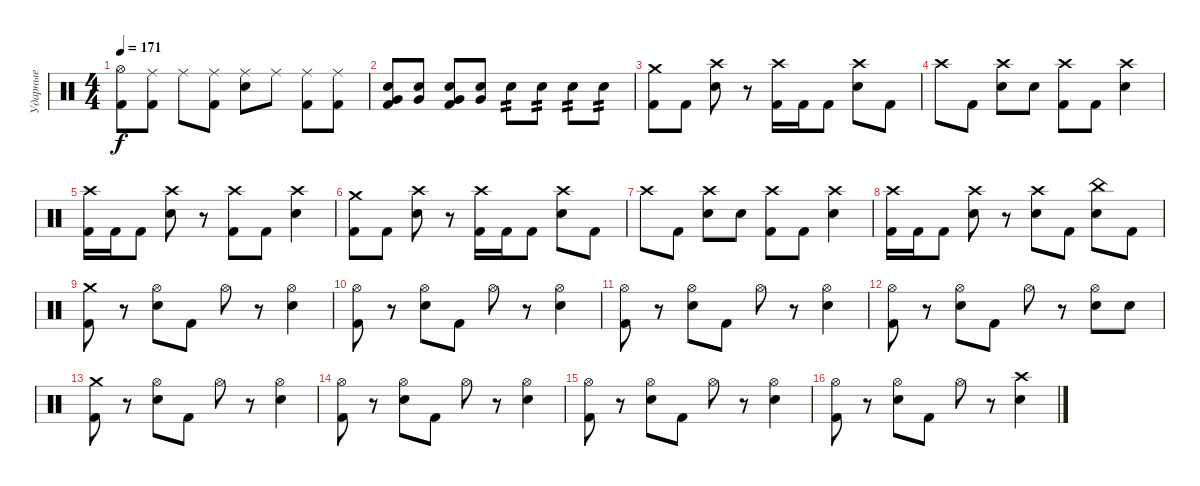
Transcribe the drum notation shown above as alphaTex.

\track ("Ударные" "Ударные") {instrument percussion}
\staff {score}
\articulation defaults
\ts (4 4)
\tempo 171
\clef neutral
\ks c
("Hi-Hat (open)" "Kick (hit) 2").8{dy f} ("Ride (middle)" "Kick (hit) 2").8 "Ride (middle)".8 ("Ride (middle)" "Kick (hit) 2").8 ("Ride (middle)" "Electric Snare (hit)").8 "Ride (middle)".8 ("Ride (middle)" "Kick (hit) 2").8 ("Ride (middle)" "Kick (hit) 2").8 |
("Electric Snare (hit)" "Very Low Tom (hit)" "Kick (hit) 2").8 ("Electric Snare (hit)" "Very Low Tom (hit)").8 ("Electric Snare (hit)" "Very Low Tom (hit)" "Kick (hit) 2").8 ("Electric Snare (hit)" "Very Low Tom (hit)").8 "Electric Snare (hit)".8{tp 2} "Electric Snare (hit)".8{tp 2} "Electric Snare (hit)".8{tp 2} "Electric Snare (hit)".8{tp 2} |
("Crash medium (hit)" "Kick (hit) 2").8 "Kick (hit) 2".8 ("Crash high (hit)" "Electric Snare (hit)").8 r.8 ("Crash high (hit)" "Kick (hit) 2").16 "Kick (hit) 2".16 "Kick (hit) 2".8 ("Crash high (hit)" "Electric Snare (hit)").8 "Kick (hit) 2".8 |
"Crash high (hit)".8 "Kick (hit) 2".8 ("Crash high (hit)" "Electric Snare (hit)").8 "Electric Snare (hit)".8 ("Crash high (hit)" "Kick (hit) 2").8 "Kick (hit) 2".8 ("Crash high (hit)" "Electric Snare (hit)").4 |
("Crash high (hit)" "Kick (hit) 2").16 "Kick (hit) 2".16 "Kick (hit) 2".8 ("Crash high (hit)" "Electric Snare (hit)").8 r.8 ("Crash high (hit)" "Kick (hit) 2").8 "Kick (hit) 2".8 ("Crash high (hit)" "Electric Snare (hit)").4 |
("Crash medium (hit)" "Kick (hit) 2").8 "Kick (hit) 2".8 ("Crash high (hit)" "Electric Snare (hit)").8 r.8 ("Crash high (hit)" "Kick (hit) 2").16 "Kick (hit) 2".16 "Kick (hit) 2".8 ("Crash high (hit)" "Electric Snare (hit)").8 "Kick (hit) 2".8 |
"Crash high (hit)".8 "Kick (hit) 2".8 ("Crash high (hit)" "Electric Snare (hit)").8 "Electric Snare (hit)".8 ("Crash high (hit)" "Kick (hit) 2").8 "Kick (hit) 2".8 ("Crash high (hit)" "Electric Snare (hit)").4 |
("Crash high (hit)" "Kick (hit) 2").16 "Kick (hit) 2".16 "Kick (hit) 2".8 ("Crash high (hit)" "Electric Snare (hit)").8 r.8 ("Crash high (hit)" "Electric Snare (hit)").8 "Kick (hit) 2".8 ("China (hit)" "Electric Snare (hit)").8 "Kick (hit) 2".8 |
("Crash medium (hit)" "Kick (hit) 2").8 r.8 ("Hi-Hat (open)" "Electric Snare (hit)").8 "Kick (hit) 2".8 "Hi-Hat (open)".8 r.8 ("Hi-Hat (open)" "Electric Snare (hit)").4 |
("Hi-Hat (open)" "Kick (hit) 2").8 r.8 ("Hi-Hat (open)" "Electric Snare (hit)").8 "Kick (hit) 2".8 "Hi-Hat (open)".8 r.8 ("Hi-Hat (open)" "Electric Snare (hit)").4 |
("Hi-Hat (open)" "Kick (hit) 2").8 r.8 ("Hi-Hat (open)" "Electric Snare (hit)").8 "Kick (hit) 2".8 "Hi-Hat (open)".8 r.8 ("Hi-Hat (open)" "Electric Snare (hit)").4 |
("Hi-Hat (open)" "Kick (hit) 2").8 r.8 ("Hi-Hat (open)" "Electric Snare (hit)").8 "Kick (hit) 2".8 "Hi-Hat (open)".8 r.8 ("Hi-Hat (open)" "Electric Snare (hit)").8 "Electric Snare (hit)".8 |
("Crash medium (hit)" "Kick (hit) 2").8 r.8 ("Hi-Hat (open)" "Electric Snare (hit)").8 "Kick (hit) 2".8 "Hi-Hat (open)".8 r.8 ("Hi-Hat (open)" "Electric Snare (hit)").4 |
("Hi-Hat (open)" "Kick (hit) 2").8 r.8 ("Hi-Hat (open)" "Electric Snare (hit)").8 "Kick (hit) 2".8 "Hi-Hat (open)".8 r.8 ("Hi-Hat (open)" "Electric Snare (hit)").4 |
("Hi-Hat (open)" "Kick (hit) 2").8 r.8 ("Hi-Hat (open)" "Electric Snare (hit)").8 "Kick (hit) 2".8 "Hi-Hat (open)".8 r.8 ("Hi-Hat (open)" "Electric Snare (hit)").4 |
("Hi-Hat (open)" "Kick (hit) 2").8 r.8 ("Hi-Hat (open)" "Electric Snare (hit)").8 "Kick (hit) 2".8 "Hi-Hat (open)".8 r.8 ("Crash high (hit)" "Electric Snare (hit)").4
